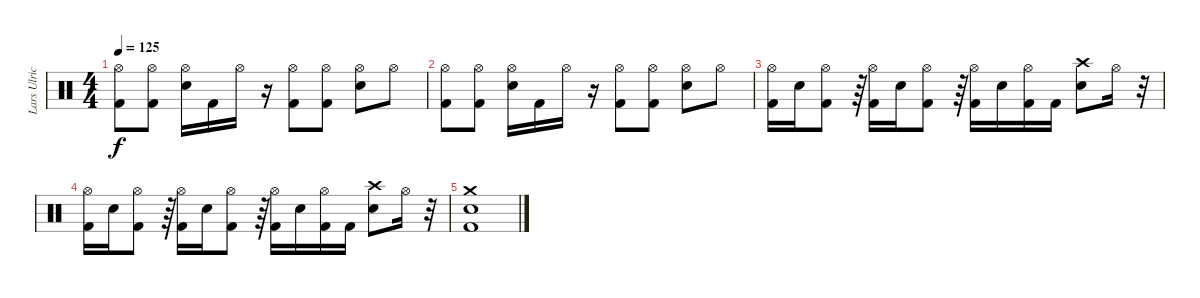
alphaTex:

\track ("Lars Ulrich" "Lars Ulric") {instrument percussion}
\staff {score}
\articulation defaults
\ts (4 4)
\tempo 125
\clef neutral
\ks c
("Hi-Hat (open)" "Kick (hit) 2").8{dy f} ("Hi-Hat (open)" "Kick (hit) 2").8 ("Hi-Hat (open)" "Electric Snare (hit)").16 "Kick (hit) 2".16 "Hi-Hat (open)".16 r.16 ("Hi-Hat (open)" "Kick (hit) 2").8 ("Hi-Hat (open)" "Kick (hit) 2").8 ("Hi-Hat (open)" "Electric Snare (hit)").8 "Hi-Hat (open)".8 |
("Hi-Hat (open)" "Kick (hit) 2").8 ("Hi-Hat (open)" "Kick (hit) 2").8 ("Hi-Hat (open)" "Electric Snare (hit)").16 "Kick (hit) 2".16 "Hi-Hat (open)".16 r.16 ("Hi-Hat (open)" "Kick (hit) 2").8 ("Hi-Hat (open)" "Kick (hit) 2").8 ("Hi-Hat (open)" "Electric Snare (hit)").8 "Hi-Hat (open)".8 |
("Hi-Hat (open)" "Kick (hit) 2").16 "Electric Snare (hit)".16 ("Hi-Hat (open)" "Kick (hit) 2").8 r.64 ("Hi-Hat (open)" "Kick (hit) 2").16 "Electric Snare (hit)".16 ("Hi-Hat (open)" "Kick (hit) 2").8 r.64 ("Hi-Hat (open)" "Kick (hit) 2").16 "Electric Snare (hit)".16 ("Hi-Hat (open)" "Kick (hit) 2").16 "Kick (hit) 2".16 ("Crash high (hit)" "Electric Snare (hit)").8 "Hi-Hat (open)".16 r.32 |
("Hi-Hat (open)" "Kick (hit) 2").16 "Electric Snare (hit)".16 ("Hi-Hat (open)" "Kick (hit) 2").8 r.64 ("Hi-Hat (open)" "Kick (hit) 2").16 "Electric Snare (hit)".16 ("Hi-Hat (open)" "Kick (hit) 2").8 r.64 ("Hi-Hat (open)" "Kick (hit) 2").16 "Electric Snare (hit)".16 ("Hi-Hat (open)" "Kick (hit) 2").16 "Kick (hit) 2".16 ("Crash high (hit)" "Electric Snare (hit)").8 "Hi-Hat (open)".16 r.32 |
("Crash medium (hit)" "Electric Snare (hit)" "Kick (hit) 2").1
